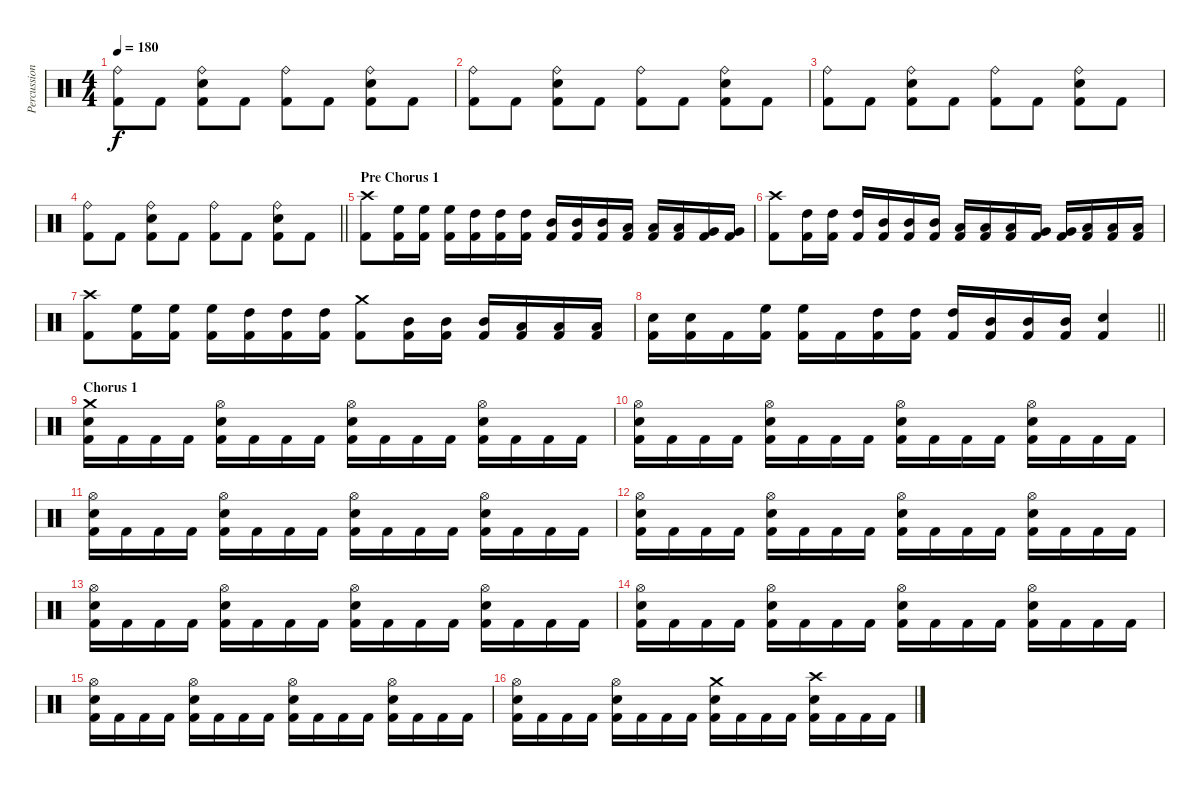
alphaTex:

\track ("Percussion" "Percussion") {instrument percussion}
\staff {score}
\articulation defaults
\ts (4 4)
\tempo 180
\clef neutral
\ks c
("Ride (bell)" "Kick (hit) 2").8{dy f} "Kick (hit) 2".8 ("Ride (bell)" "Electric Snare (hit)" "Kick (hit) 2").8 "Kick (hit) 2".8 ("Ride (bell)" "Kick (hit) 2").8 "Kick (hit) 2".8 ("Ride (bell)" "Electric Snare (hit)" "Kick (hit) 2").8 "Kick (hit) 2".8 |
("Ride (bell)" "Kick (hit) 2").8 "Kick (hit) 2".8 ("Ride (bell)" "Electric Snare (hit)" "Kick (hit) 2").8 "Kick (hit) 2".8 ("Ride (bell)" "Kick (hit) 2").8 "Kick (hit) 2".8 ("Ride (bell)" "Electric Snare (hit)" "Kick (hit) 2").8 "Kick (hit) 2".8 |
("Ride (bell)" "Kick (hit) 2").8 "Kick (hit) 2".8 ("Ride (bell)" "Electric Snare (hit)" "Kick (hit) 2").8 "Kick (hit) 2".8 ("Ride (bell)" "Kick (hit) 2").8 "Kick (hit) 2".8 ("Ride (bell)" "Electric Snare (hit)" "Kick (hit) 2").8 "Kick (hit) 2".8 |
\barLineRight lightlight
("Ride (bell)" "Kick (hit) 2").8 "Kick (hit) 2".8 ("Ride (bell)" "Electric Snare (hit)" "Kick (hit) 2").8 "Kick (hit) 2".8 ("Ride (bell)" "Kick (hit) 2").8 "Kick (hit) 2".8 ("Ride (bell)" "Electric Snare (hit)" "Kick (hit) 2").8 "Kick (hit) 2".8 |
\section ("" "Pre Chorus 1")
("Crash high (hit)" "Kick (hit) 2").8 ("High Floor Tom (hit)" "Kick (hit) 2").16 ("High Floor Tom (hit)" "Kick (hit) 2").16 ("High Floor Tom (hit)" "Kick (hit) 2").16 ("High Tom (hit)" "Kick (hit) 2").16 ("High Tom (hit)" "Kick (hit) 2").16 ("High Tom (hit)" "Kick (hit) 2").16 ("Mid Tom (hit)" "Kick (hit) 2").16 ("Mid Tom (hit)" "Kick (hit) 2").16 ("Mid Tom (hit)" "Kick (hit) 2").16 ("Low Tom (hit)" "Kick (hit) 2").16 ("Low Tom (hit)" "Kick (hit) 2").16 ("Low Tom (hit)" "Kick (hit) 2").16 ("Very Low Tom (hit)" "Kick (hit) 2").16 ("Very Low Tom (hit)" "Kick (hit) 2").16 |
("Crash high (hit)" "Kick (hit) 2").8 ("High Tom (hit)" "Kick (hit) 2").16 ("High Tom (hit)" "Kick (hit) 2").16 ("High Tom (hit)" "Kick (hit) 2").16 ("Mid Tom (hit)" "Kick (hit) 2").16 ("Mid Tom (hit)" "Kick (hit) 2").16 ("Mid Tom (hit)" "Kick (hit) 2").16 ("Low Tom (hit)" "Kick (hit) 2").16 ("Low Tom (hit)" "Kick (hit) 2").16 ("Low Tom (hit)" "Kick (hit) 2").16 ("Very Low Tom (hit)" "Kick (hit) 2").16 ("Very Low Tom (hit)" "Kick (hit) 2").16 ("Low Floor Tom (hit)" "Kick (hit) 2").16 ("Low Floor Tom (hit)" "Kick (hit) 2").16 ("Low Floor Tom (hit)" "Kick (hit) 2").16 |
("Crash high (hit)" "Kick (hit) 2").8 ("High Floor Tom (hit)" "Kick (hit) 2").16 ("High Floor Tom (hit)" "Kick (hit) 2").16 ("High Floor Tom (hit)" "Kick (hit) 2").16 ("High Tom (hit)" "Kick (hit) 2").16 ("High Tom (hit)" "Kick (hit) 2").16 ("High Tom (hit)" "Kick (hit) 2").16 ("Crash medium (hit)" "Kick (hit) 2").8 ("Mid Tom (hit)" "Kick (hit) 2").16 ("Mid Tom (hit)" "Kick (hit) 2").16 ("Mid Tom (hit)" "Kick (hit) 2").16 ("Low Tom (hit)" "Kick (hit) 2").16 ("Low Tom (hit)" "Kick (hit) 2").16 ("Low Tom (hit)" "Kick (hit) 2").16 |
\barLineRight lightlight
("Electric Snare (hit)" "Kick (hit) 2").16 ("Electric Snare (hit)" "Kick (hit) 2").16 "Kick (hit) 2".16 ("High Floor Tom (hit)" "Kick (hit) 2").16 ("High Floor Tom (hit)" "Kick (hit) 2").16 "Kick (hit) 2".16 ("High Tom (hit)" "Kick (hit) 2").16 ("High Tom (hit)" "Kick (hit) 2").16 ("High Tom (hit)" "Kick (hit) 2").16 ("Mid Tom (hit)" "Kick (hit) 2").16 ("Mid Tom (hit)" "Kick (hit) 2").16 ("Mid Tom (hit)" "Kick (hit) 2").16 ("Electric Snare (hit)" "Kick (hit) 2").4 |
\section ("" "Chorus 1")
("Crash medium (hit)" "Electric Snare (hit)" "Kick (hit) 2").16 "Kick (hit) 2".16 "Kick (hit) 2".16 "Kick (hit) 2".16 ("Hi-Hat (open)" "Electric Snare (hit)" "Kick (hit) 2").16 "Kick (hit) 2".16 "Kick (hit) 2".16 "Kick (hit) 2".16 ("Hi-Hat (open)" "Electric Snare (hit)" "Kick (hit) 2").16 "Kick (hit) 2".16 "Kick (hit) 2".16 "Kick (hit) 2".16 ("Hi-Hat (open)" "Electric Snare (hit)" "Kick (hit) 2").16 "Kick (hit) 2".16 "Kick (hit) 2".16 "Kick (hit) 2".16 |
("Hi-Hat (open)" "Electric Snare (hit)" "Kick (hit) 2").16 "Kick (hit) 2".16 "Kick (hit) 2".16 "Kick (hit) 2".16 ("Hi-Hat (open)" "Electric Snare (hit)" "Kick (hit) 2").16 "Kick (hit) 2".16 "Kick (hit) 2".16 "Kick (hit) 2".16 ("Hi-Hat (open)" "Electric Snare (hit)" "Kick (hit) 2").16 "Kick (hit) 2".16 "Kick (hit) 2".16 "Kick (hit) 2".16 ("Hi-Hat (open)" "Electric Snare (hit)" "Kick (hit) 2").16 "Kick (hit) 2".16 "Kick (hit) 2".16 "Kick (hit) 2".16 |
("Hi-Hat (open)" "Electric Snare (hit)" "Kick (hit) 2").16 "Kick (hit) 2".16 "Kick (hit) 2".16 "Kick (hit) 2".16 ("Hi-Hat (open)" "Electric Snare (hit)" "Kick (hit) 2").16 "Kick (hit) 2".16 "Kick (hit) 2".16 "Kick (hit) 2".16 ("Hi-Hat (open)" "Electric Snare (hit)" "Kick (hit) 2").16 "Kick (hit) 2".16 "Kick (hit) 2".16 "Kick (hit) 2".16 ("Hi-Hat (open)" "Electric Snare (hit)" "Kick (hit) 2").16 "Kick (hit) 2".16 "Kick (hit) 2".16 "Kick (hit) 2".16 |
("Hi-Hat (open)" "Electric Snare (hit)" "Kick (hit) 2").16 "Kick (hit) 2".16 "Kick (hit) 2".16 "Kick (hit) 2".16 ("Hi-Hat (open)" "Electric Snare (hit)" "Kick (hit) 2").16 "Kick (hit) 2".16 "Kick (hit) 2".16 "Kick (hit) 2".16 ("Hi-Hat (open)" "Electric Snare (hit)" "Kick (hit) 2").16 "Kick (hit) 2".16 "Kick (hit) 2".16 "Kick (hit) 2".16 ("Hi-Hat (open)" "Electric Snare (hit)" "Kick (hit) 2").16 "Kick (hit) 2".16 "Kick (hit) 2".16 "Kick (hit) 2".16 |
("Hi-Hat (open)" "Electric Snare (hit)" "Kick (hit) 2").16 "Kick (hit) 2".16 "Kick (hit) 2".16 "Kick (hit) 2".16 ("Hi-Hat (open)" "Electric Snare (hit)" "Kick (hit) 2").16 "Kick (hit) 2".16 "Kick (hit) 2".16 "Kick (hit) 2".16 ("Hi-Hat (open)" "Electric Snare (hit)" "Kick (hit) 2").16 "Kick (hit) 2".16 "Kick (hit) 2".16 "Kick (hit) 2".16 ("Hi-Hat (open)" "Electric Snare (hit)" "Kick (hit) 2").16 "Kick (hit) 2".16 "Kick (hit) 2".16 "Kick (hit) 2".16 |
("Hi-Hat (open)" "Electric Snare (hit)" "Kick (hit) 2").16 "Kick (hit) 2".16 "Kick (hit) 2".16 "Kick (hit) 2".16 ("Hi-Hat (open)" "Electric Snare (hit)" "Kick (hit) 2").16 "Kick (hit) 2".16 "Kick (hit) 2".16 "Kick (hit) 2".16 ("Hi-Hat (open)" "Electric Snare (hit)" "Kick (hit) 2").16 "Kick (hit) 2".16 "Kick (hit) 2".16 "Kick (hit) 2".16 ("Hi-Hat (open)" "Electric Snare (hit)" "Kick (hit) 2").16 "Kick (hit) 2".16 "Kick (hit) 2".16 "Kick (hit) 2".16 |
("Hi-Hat (open)" "Electric Snare (hit)" "Kick (hit) 2").16 "Kick (hit) 2".16 "Kick (hit) 2".16 "Kick (hit) 2".16 ("Hi-Hat (open)" "Electric Snare (hit)" "Kick (hit) 2").16 "Kick (hit) 2".16 "Kick (hit) 2".16 "Kick (hit) 2".16 ("Hi-Hat (open)" "Electric Snare (hit)" "Kick (hit) 2").16 "Kick (hit) 2".16 "Kick (hit) 2".16 "Kick (hit) 2".16 ("Hi-Hat (open)" "Electric Snare (hit)" "Kick (hit) 2").16 "Kick (hit) 2".16 "Kick (hit) 2".16 "Kick (hit) 2".16 |
("Hi-Hat (open)" "Electric Snare (hit)" "Kick (hit) 2").16 "Kick (hit) 2".16 "Kick (hit) 2".16 "Kick (hit) 2".16 ("Hi-Hat (open)" "Electric Snare (hit)" "Kick (hit) 2").16 "Kick (hit) 2".16 "Kick (hit) 2".16 "Kick (hit) 2".16 ("Crash medium (hit)" "Electric Snare (hit)" "Kick (hit) 2").16 "Kick (hit) 2".16 "Kick (hit) 2".16 "Kick (hit) 2".16 ("Crash high (hit)" "Electric Snare (hit)" "Kick (hit) 2").16 "Kick (hit) 2".16 "Kick (hit) 2".16 "Kick (hit) 2".16
